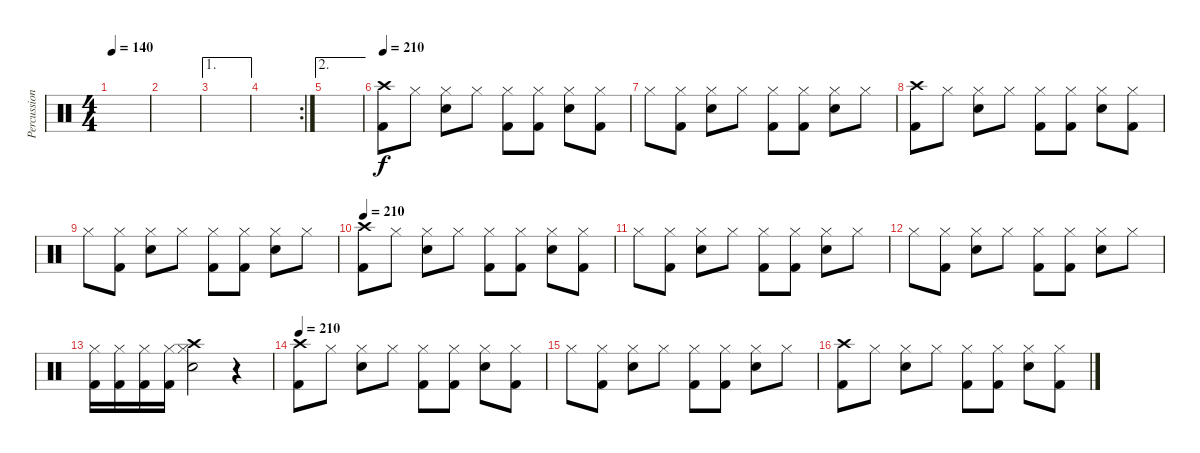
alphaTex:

\track ("Percussion" "Percussion") {instrument percussion}
\staff {score}
\articulation defaults
\ts (4 4)
\tempo 140
\clef neutral
\ks c
|
|
\ae 1
|
\rc 2
|
\ae 2
|
\tempo 210
("Kick (hit) 2" "Crash high (hit)").8 "Hi-Hat (closed)".8 ("Snare (hit) 2" "Hi-Hat (closed)").8 "Hi-Hat (closed)".8 ("Kick (hit) 2" "Hi-Hat (closed)").8 ("Kick (hit) 2" "Hi-Hat (closed)").8 ("Snare (hit) 2" "Hi-Hat (closed)").8 ("Kick (hit) 2" "Hi-Hat (closed)").8 |
"Hi-Hat (closed)".8 ("Kick (hit) 2" "Hi-Hat (closed)").8 ("Snare (hit) 2" "Hi-Hat (closed)").8 "Hi-Hat (closed)".8 ("Kick (hit) 2" "Hi-Hat (closed)").8 ("Kick (hit) 2" "Hi-Hat (closed)").8 ("Snare (hit) 2" "Hi-Hat (closed)").8 "Hi-Hat (closed)".8 |
("Kick (hit) 2" "Crash high (hit)").8 "Hi-Hat (closed)".8 ("Snare (hit) 2" "Hi-Hat (closed)").8 "Hi-Hat (closed)".8 ("Kick (hit) 2" "Hi-Hat (closed)").8 ("Kick (hit) 2" "Hi-Hat (closed)").8 ("Snare (hit) 2" "Hi-Hat (closed)").8 ("Kick (hit) 2" "Hi-Hat (closed)").8 |
"Hi-Hat (closed)".8 ("Kick (hit) 2" "Hi-Hat (closed)").8 ("Snare (hit) 2" "Hi-Hat (closed)").8 "Hi-Hat (closed)".8 ("Kick (hit) 2" "Hi-Hat (closed)").8 ("Kick (hit) 2" "Hi-Hat (closed)").8 ("Snare (hit) 2" "Hi-Hat (closed)").8 "Hi-Hat (closed)".8 |
\tempo 210
("Kick (hit) 2" "Crash high (hit)").8 "Hi-Hat (closed)".8 ("Snare (hit) 2" "Hi-Hat (closed)").8 "Hi-Hat (closed)".8 ("Kick (hit) 2" "Hi-Hat (closed)").8 ("Kick (hit) 2" "Hi-Hat (closed)").8 ("Snare (hit) 2" "Hi-Hat (closed)").8 ("Kick (hit) 2" "Hi-Hat (closed)").8 |
"Hi-Hat (closed)".8 ("Kick (hit) 2" "Hi-Hat (closed)").8 ("Snare (hit) 2" "Hi-Hat (closed)").8 "Hi-Hat (closed)".8 ("Kick (hit) 2" "Hi-Hat (closed)").8 ("Kick (hit) 2" "Hi-Hat (closed)").8 ("Snare (hit) 2" "Hi-Hat (closed)").8 "Hi-Hat (closed)".8 |
"Hi-Hat (closed)".8 ("Kick (hit) 2" "Hi-Hat (closed)").8 ("Snare (hit) 2" "Hi-Hat (closed)").8 "Hi-Hat (closed)".8 ("Kick (hit) 2" "Hi-Hat (closed)").8 ("Kick (hit) 2" "Hi-Hat (closed)").8 ("Snare (hit) 2" "Hi-Hat (closed)").8 "Hi-Hat (closed)".8 |
("Kick (hit) 2" "Hi-Hat (closed)").16 ("Kick (hit) 2" "Hi-Hat (closed)").16 ("Kick (hit) 2" "Hi-Hat (closed)").16 ("Kick (hit) 2" "Hi-Hat (closed)").16 ("Snare (hit) 2" "Hi-Hat (closed)" "Crash high (hit)").2 r.4 |
\tempo 210
("Kick (hit) 2" "Crash high (hit)").8 "Hi-Hat (closed)".8 ("Snare (hit) 2" "Hi-Hat (closed)").8 "Hi-Hat (closed)".8 ("Kick (hit) 2" "Hi-Hat (closed)").8 ("Kick (hit) 2" "Hi-Hat (closed)").8 ("Snare (hit) 2" "Hi-Hat (closed)").8 ("Kick (hit) 2" "Hi-Hat (closed)").8 |
"Hi-Hat (closed)".8 ("Kick (hit) 2" "Hi-Hat (closed)").8 ("Snare (hit) 2" "Hi-Hat (closed)").8 "Hi-Hat (closed)".8 ("Kick (hit) 2" "Hi-Hat (closed)").8 ("Kick (hit) 2" "Hi-Hat (closed)").8 ("Snare (hit) 2" "Hi-Hat (closed)").8 "Hi-Hat (closed)".8 |
("Kick (hit) 2" "Crash high (hit)").8 "Hi-Hat (closed)".8 ("Snare (hit) 2" "Hi-Hat (closed)").8 "Hi-Hat (closed)".8 ("Kick (hit) 2" "Hi-Hat (closed)").8 ("Kick (hit) 2" "Hi-Hat (closed)").8 ("Snare (hit) 2" "Hi-Hat (closed)").8 ("Kick (hit) 2" "Hi-Hat (closed)").8
